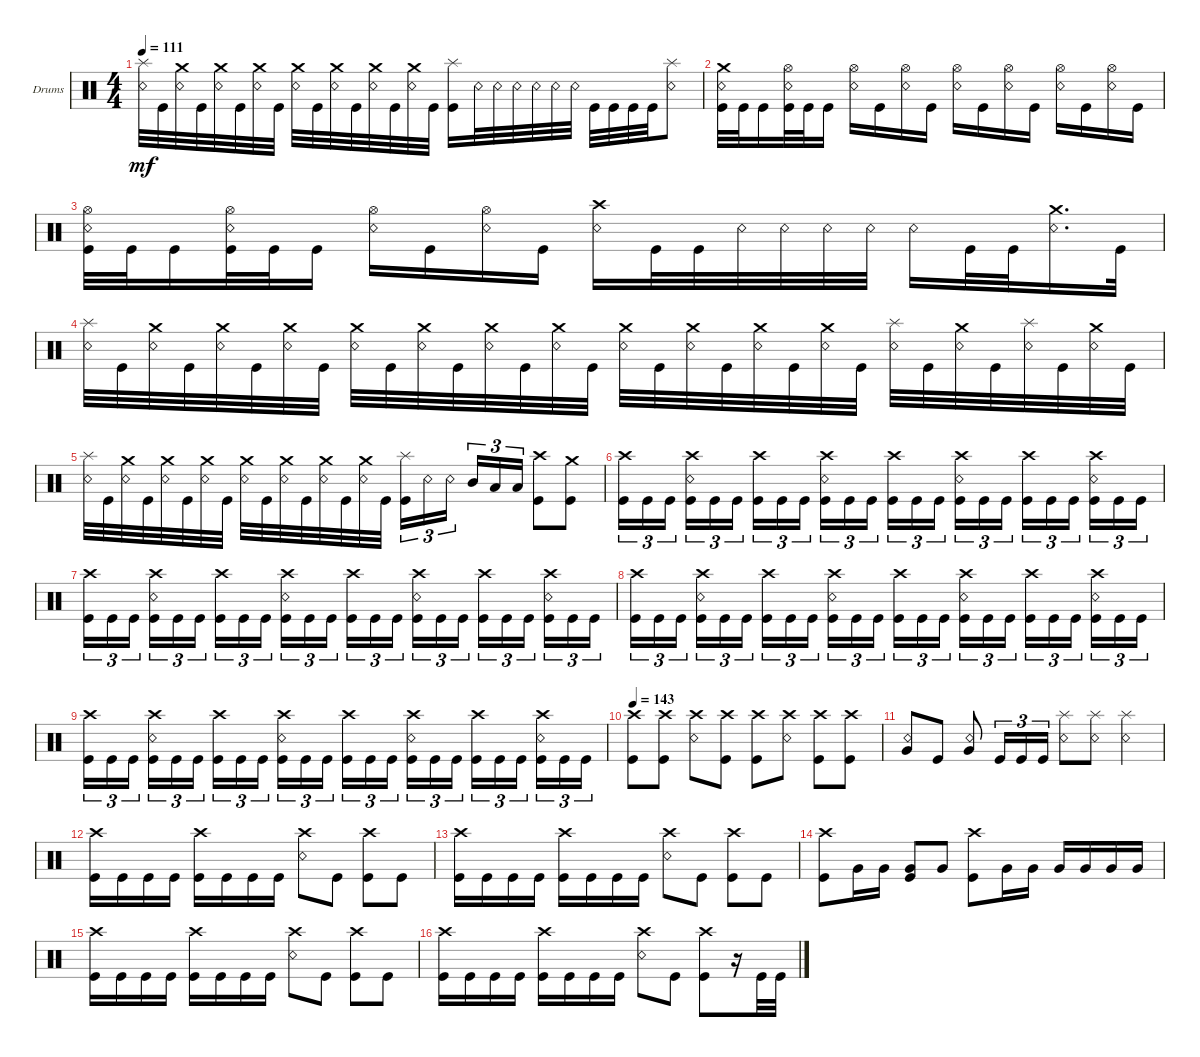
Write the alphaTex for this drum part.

\defaultSystemsLayout 4
\bracketExtendMode groupsimilarinstruments
\firstSystemTrackNameOrientation horizontal
\otherSystemsTrackNameOrientation horizontal
\track ("Drums" "Drums") {instrument percussion}
\staff {score}
\articulation defaults
\ts (4 4)
\tempo 111
\clef neutral
\ks c
("Snare (rim shot)" "Splash (hit)").32{dy mf} "Kick (hit)".32 ("Snare (rim shot)" "Crash medium (hit)").32 "Kick (hit)".32 ("Snare (rim shot)" "Crash medium (hit)").32 "Kick (hit)".32 ("Snare (rim shot)" "Crash medium (hit)").32 "Kick (hit)".32 ("Snare (rim shot)" "Crash medium (hit)").32 "Kick (hit)".32 ("Snare (rim shot)" "Crash medium (hit)").32 "Kick (hit)".32 ("Snare (rim shot)" "Crash medium (hit)").32 "Kick (hit)".32 ("Snare (rim shot)" "Crash medium (hit)").32 "Kick (hit)".32 ("Splash (hit)" "Kick (hit)").16 "Snare (rim shot)".32 "Snare (rim shot)".32 "Snare (rim shot)".32 "Snare (rim shot)".32 "Snare (rim shot)".32 "Snare (rim shot)".32 "Kick (hit)".32 "Kick (hit)".32 "Kick (hit)".32 "Kick (hit)".32 ("Snare (rim shot)" "Splash (hit)").8 |
("Kick (hit)" "Crash medium (hit)" "Snare (rim shot)").32 "Kick (hit)".32 "Kick (hit)".16 ("Kick (hit)" "Hi-Hat (open)" "Snare (rim shot)").32 "Kick (hit)".32 "Kick (hit)".16 ("Hi-Hat (open)" "Snare (rim shot)").16 "Kick (hit)".16 ("Hi-Hat (open)" "Snare (rim shot)").16 "Kick (hit)".16 ("Hi-Hat (open)" "Snare (rim shot)").16 "Kick (hit)".16 ("Hi-Hat (open)" "Snare (rim shot)").16 "Kick (hit)".16 ("Hi-Hat (open)" "Snare (rim shot)").16 "Kick (hit)".16 ("Hi-Hat (open)" "Snare (rim shot)").16 "Kick (hit)".16 |
("Kick (hit)" "Hi-Hat (open)" "Snare (rim shot)").32 "Kick (hit)".32 "Kick (hit)".16 ("Kick (hit)" "Hi-Hat (open)" "Snare (rim shot)").32 "Kick (hit)".32 "Kick (hit)".16 ("Hi-Hat (open)" "Snare (rim shot)").16 "Kick (hit)".16 ("Hi-Hat (open)" "Snare (rim shot)").16 "Kick (hit)".16 ("Crash high (hit)" "Snare (rim shot)").16 "Kick (hit)".32 "Kick (hit)".32 "Snare (rim shot)".32 "Snare (rim shot)".32 "Snare (rim shot)".32 "Snare (rim shot)".32 "Snare (rim shot)".16 "Kick (hit)".32 "Kick (hit)".32 ("Snare (rim shot)" "Crash medium (hit)").16{d} "Kick (hit)".32 |
("Snare (rim shot)" "Splash (hit)").32 "Kick (hit)".32 ("Snare (rim shot)" "Crash medium (hit)").32 "Kick (hit)".32 ("Snare (rim shot)" "Crash medium (hit)").32 "Kick (hit)".32 ("Snare (rim shot)" "Crash medium (hit)").32 "Kick (hit)".32 ("Snare (rim shot)" "Crash medium (hit)").32 "Kick (hit)".32 ("Snare (rim shot)" "Crash medium (hit)").32 "Kick (hit)".32 ("Snare (rim shot)" "Crash medium (hit)").32 "Kick (hit)".32 ("Snare (rim shot)" "Crash medium (hit)").32 "Kick (hit)".32 ("Snare (rim shot)" "Crash medium (hit)").32 "Kick (hit)".32 ("Snare (rim shot)" "Crash medium (hit)").32 "Kick (hit)".32 ("Snare (rim shot)" "Crash medium (hit)").32 "Kick (hit)".32 ("Snare (rim shot)" "Crash medium (hit)").32 "Kick (hit)".32 ("Snare (rim shot)" "Splash (hit)").32 "Kick (hit)".32 ("Snare (rim shot)" "Crash medium (hit)").32 "Kick (hit)".32 ("Snare (rim shot)" "Splash (hit)").32 "Kick (hit)".32 ("Snare (rim shot)" "Crash medium (hit)").32 "Kick (hit)".32 |
("Snare (rim shot)" "Splash (hit)").32 "Kick (hit)".32 ("Snare (rim shot)" "Crash medium (hit)").32 "Kick (hit)".32 ("Snare (rim shot)" "Crash medium (hit)").32 "Kick (hit)".32 ("Snare (rim shot)" "Crash medium (hit)").32 "Kick (hit)".32 ("Snare (rim shot)" "Crash medium (hit)").32 "Kick (hit)".32 ("Snare (rim shot)" "Crash medium (hit)").32 "Kick (hit)".32 ("Snare (rim shot)" "Crash medium (hit)").32 "Kick (hit)".32 ("Snare (rim shot)" "Crash medium (hit)").32 "Kick (hit)".32 ("Splash (hit)" "Kick (hit)").16{tu (3 2)} "Snare (rim shot)".16{tu (3 2)} "Snare (rim shot)".16{tu (3 2)} "Mid Tom (hit)".16{tu (3 2)} "Low Tom (hit)".16{tu (3 2)} "Low Tom (hit)".16{tu (3 2)} ("Kick (hit)" "Crash high (hit)").8 ("Kick (hit)" "Crash medium (hit)").8 |
("Kick (hit)" "Crash high (hit)").16{tu (3 2)} "Kick (hit)".16{tu (3 2)} "Kick (hit)".16{tu (3 2)} ("Kick (hit)" "Crash high (hit)" "Snare (rim shot)").16{tu (3 2)} "Kick (hit)".16{tu (3 2)} "Kick (hit)".16{tu (3 2)} ("Kick (hit)" "Crash high (hit)").16{tu (3 2)} "Kick (hit)".16{tu (3 2)} "Kick (hit)".16{tu (3 2)} ("Kick (hit)" "Crash high (hit)" "Snare (rim shot)").16{tu (3 2)} "Kick (hit)".16{tu (3 2)} "Kick (hit)".16{tu (3 2)} ("Kick (hit)" "Crash high (hit)").16{tu (3 2)} "Kick (hit)".16{tu (3 2)} "Kick (hit)".16{tu (3 2)} ("Kick (hit)" "Crash high (hit)" "Snare (rim shot)").16{tu (3 2)} "Kick (hit)".16{tu (3 2)} "Kick (hit)".16{tu (3 2)} ("Kick (hit)" "Crash high (hit)").16{tu (3 2)} "Kick (hit)".16{tu (3 2)} "Kick (hit)".16{tu (3 2)} ("Kick (hit)" "Crash high (hit)" "Snare (rim shot)").16{tu (3 2)} "Kick (hit)".16{tu (3 2)} "Kick (hit)".16{tu (3 2)} |
("Kick (hit)" "Crash high (hit)").16{tu (3 2)} "Kick (hit)".16{tu (3 2)} "Kick (hit)".16{tu (3 2)} ("Kick (hit)" "Crash high (hit)" "Snare (rim shot)").16{tu (3 2)} "Kick (hit)".16{tu (3 2)} "Kick (hit)".16{tu (3 2)} ("Kick (hit)" "Crash high (hit)").16{tu (3 2)} "Kick (hit)".16{tu (3 2)} "Kick (hit)".16{tu (3 2)} ("Kick (hit)" "Crash high (hit)" "Snare (rim shot)").16{tu (3 2)} "Kick (hit)".16{tu (3 2)} "Kick (hit)".16{tu (3 2)} ("Kick (hit)" "Crash high (hit)").16{tu (3 2)} "Kick (hit)".16{tu (3 2)} "Kick (hit)".16{tu (3 2)} ("Kick (hit)" "Crash high (hit)" "Snare (rim shot)").16{tu (3 2)} "Kick (hit)".16{tu (3 2)} "Kick (hit)".16{tu (3 2)} ("Kick (hit)" "Crash high (hit)").16{tu (3 2)} "Kick (hit)".16{tu (3 2)} "Kick (hit)".16{tu (3 2)} ("Kick (hit)" "Crash high (hit)" "Snare (rim shot)").16{tu (3 2)} "Kick (hit)".16{tu (3 2)} "Kick (hit)".16{tu (3 2)} |
("Kick (hit)" "Crash high (hit)").16{tu (3 2)} "Kick (hit)".16{tu (3 2)} "Kick (hit)".16{tu (3 2)} ("Kick (hit)" "Crash high (hit)" "Snare (rim shot)").16{tu (3 2)} "Kick (hit)".16{tu (3 2)} "Kick (hit)".16{tu (3 2)} ("Kick (hit)" "Crash high (hit)").16{tu (3 2)} "Kick (hit)".16{tu (3 2)} "Kick (hit)".16{tu (3 2)} ("Kick (hit)" "Crash high (hit)" "Snare (rim shot)").16{tu (3 2)} "Kick (hit)".16{tu (3 2)} "Kick (hit)".16{tu (3 2)} ("Kick (hit)" "Crash high (hit)").16{tu (3 2)} "Kick (hit)".16{tu (3 2)} "Kick (hit)".16{tu (3 2)} ("Kick (hit)" "Crash high (hit)" "Snare (rim shot)").16{tu (3 2)} "Kick (hit)".16{tu (3 2)} "Kick (hit)".16{tu (3 2)} ("Kick (hit)" "Crash high (hit)").16{tu (3 2)} "Kick (hit)".16{tu (3 2)} "Kick (hit)".16{tu (3 2)} ("Kick (hit)" "Crash high (hit)" "Snare (rim shot)").16{tu (3 2)} "Kick (hit)".16{tu (3 2)} "Kick (hit)".16{tu (3 2)} |
("Kick (hit)" "Crash high (hit)").16{tu (3 2)} "Kick (hit)".16{tu (3 2)} "Kick (hit)".16{tu (3 2)} ("Kick (hit)" "Crash high (hit)" "Snare (rim shot)").16{tu (3 2)} "Kick (hit)".16{tu (3 2)} "Kick (hit)".16{tu (3 2)} ("Kick (hit)" "Crash high (hit)").16{tu (3 2)} "Kick (hit)".16{tu (3 2)} "Kick (hit)".16{tu (3 2)} ("Kick (hit)" "Crash high (hit)" "Snare (rim shot)").16{tu (3 2)} "Kick (hit)".16{tu (3 2)} "Kick (hit)".16{tu (3 2)} ("Kick (hit)" "Crash high (hit)").16{tu (3 2)} "Kick (hit)".16{tu (3 2)} "Kick (hit)".16{tu (3 2)} ("Kick (hit)" "Crash high (hit)" "Snare (rim shot)").16{tu (3 2)} "Kick (hit)".16{tu (3 2)} "Kick (hit)".16{tu (3 2)} ("Kick (hit)" "Crash high (hit)").16{tu (3 2)} "Kick (hit)".16{tu (3 2)} "Kick (hit)".16{tu (3 2)} ("Kick (hit)" "Crash high (hit)" "Snare (rim shot)").16{tu (3 2)} "Kick (hit)".16{tu (3 2)} "Kick (hit)".16{tu (3 2)} |
\tempo 143
("Crash high (hit)" "Kick (hit)").8 ("Crash high (hit)" "Kick (hit)").8 ("Crash high (hit)" "Snare (rim shot)").8 ("Crash high (hit)" "Kick (hit)").8 ("Crash high (hit)" "Kick (hit)").8 ("Crash high (hit)" "Snare (rim shot)").8 ("Crash high (hit)" "Kick (hit)").8 ("Crash high (hit)" "Kick (hit)").8 |
("Snare (rim shot)" "Very Low Tom (hit)").8 "Kick (hit)".8 ("Snare (rim shot)" "Very Low Tom (hit)").8 "Kick (hit)".16{tu (3 2)} "Kick (hit)".16{tu (3 2)} "Kick (hit)".16{tu (3 2)} ("Snare (rim shot)" "Splash (hit)").8 ("Snare (rim shot)" "Splash (hit)").8 ("Snare (rim shot)" "Splash (hit)").4 |
("Crash high (hit)" "Kick (hit)").16 "Kick (hit)".16 "Kick (hit)".16 "Kick (hit)".16 ("Kick (hit)" "Crash high (hit)").16 "Kick (hit)".16 "Kick (hit)".16 "Kick (hit)".16 ("Crash high (hit)" "Snare (rim shot)").8 "Kick (hit)".8 ("Kick (hit)" "Crash high (hit)").8 "Kick (hit)".8 |
("Crash high (hit)" "Kick (hit)").16 "Kick (hit)".16 "Kick (hit)".16 "Kick (hit)".16 ("Kick (hit)" "Crash high (hit)").16 "Kick (hit)".16 "Kick (hit)".16 "Kick (hit)".16 ("Crash high (hit)" "Snare (rim shot)").8 "Kick (hit)".8 ("Kick (hit)" "Crash high (hit)").8 "Kick (hit)".8 |
("Crash high (hit)" "Kick (hit)").8 "Very Low Tom (hit)".16 "Very Low Tom (hit)".16 ("Very Low Tom (hit)" "Kick (hit)").8 "Very Low Tom (hit)".8 ("Kick (hit)" "Crash high (hit)").8 "Very Low Tom (hit)".16 "Very Low Tom (hit)".16 "Very Low Tom (hit)".16 "Very Low Tom (hit)".16 "Very Low Tom (hit)".16 "Very Low Tom (hit)".16 |
("Crash high (hit)" "Kick (hit)").16 "Kick (hit)".16 "Kick (hit)".16 "Kick (hit)".16 ("Kick (hit)" "Crash high (hit)").16 "Kick (hit)".16 "Kick (hit)".16 "Kick (hit)".16 ("Crash high (hit)" "Snare (rim shot)").8 "Kick (hit)".8 ("Kick (hit)" "Crash high (hit)").8 "Kick (hit)".8 |
("Crash high (hit)" "Kick (hit)").16 "Kick (hit)".16 "Kick (hit)".16 "Kick (hit)".16 ("Kick (hit)" "Crash high (hit)").16 "Kick (hit)".16 "Kick (hit)".16 "Kick (hit)".16 ("Crash high (hit)" "Snare (rim shot)").8 "Kick (hit)".8 ("Kick (hit)" "Crash high (hit)").8 r.16 "Kick (hit)".32 "Kick (hit)".32
